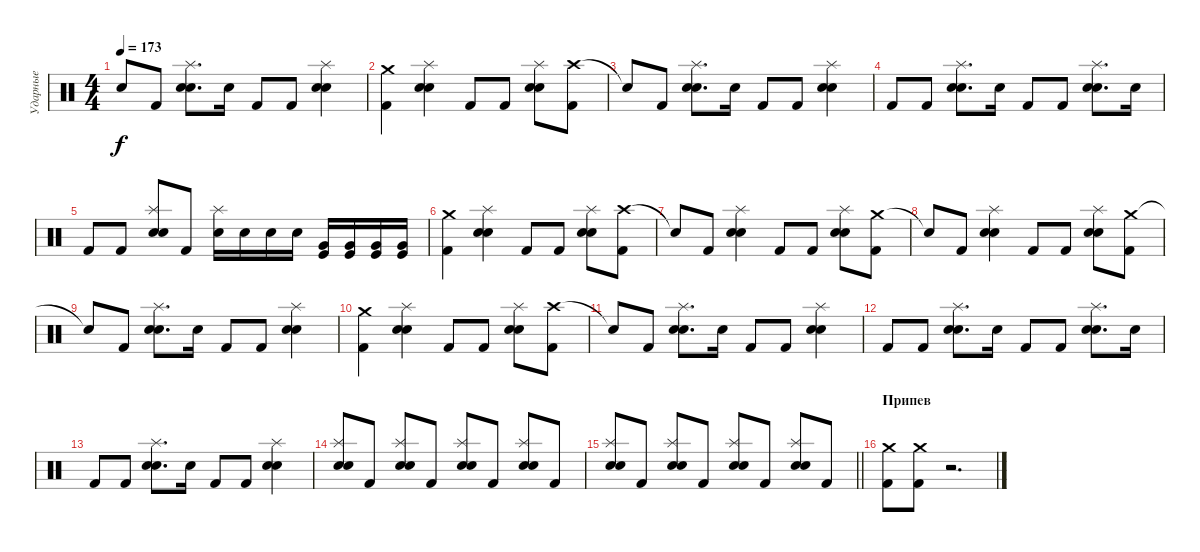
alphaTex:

\track ("Ударные" "Ударные") {instrument percussion}
\staff {score}
\articulation defaults
\ts (4 4)
\tempo 173
\clef neutral
\ks c "Snare (hit)"{t}.8{dy f} "Kick (hit) 2".8
("Splash (hit)" "Electric Snare (hit)" "Snare (hit) 2").8{d} "Electric Snare (hit)".16 "Kick (hit) 2".8 "Kick (hit) 2".8 ("Splash (hit)" "Electric Snare (hit)" "Snare (hit) 2").4 |
("Crash medium (hit)" "Kick (hit) 2").4 ("Splash (hit)" "Electric Snare (hit)" "Snare (hit) 2").4 "Kick (hit) 2".8 "Kick (hit) 2".8 ("Splash (hit)" "Electric Snare (hit)" "Snare (hit) 2").8 ("Crash high (hit)" "Kick (hit) 2").8 |
"Snare (hit)"{t}.8 "Kick (hit) 2".8 ("Splash (hit)" "Electric Snare (hit)" "Snare (hit) 2").8{d} "Electric Snare (hit)".16 "Kick (hit) 2".8 "Kick (hit) 2".8 ("Splash (hit)" "Electric Snare (hit)" "Snare (hit) 2").4 |
"Kick (hit) 2".8 "Kick (hit) 2".8 ("Splash (hit)" "Electric Snare (hit)" "Snare (hit) 2").8{d} "Electric Snare (hit)".16 "Kick (hit) 2".8 "Kick (hit) 2".8 ("Splash (hit)" "Electric Snare (hit)" "Snare (hit) 2").8{d} "Electric Snare (hit)".16 |
"Kick (hit) 2".8 "Kick (hit) 2".8 ("Splash (hit)" "Electric Snare (hit)" "Snare (hit) 2").8 "Kick (hit) 2".8 ("Splash (hit)" "Electric Snare (hit)").16 "Electric Snare (hit)".16 "Electric Snare (hit)".16 "Electric Snare (hit)".16 ("Very Low Tom (hit)" "Kick (hit)").16 ("Very Low Tom (hit)" "Kick (hit)").16 ("Very Low Tom (hit)" "Kick (hit)").16 ("Very Low Tom (hit)" "Kick (hit)").16 |
("Crash medium (hit)" "Kick (hit) 2").4 ("Splash (hit)" "Electric Snare (hit)" "Snare (hit) 2").4 "Kick (hit) 2".8 "Kick (hit) 2".8 ("Splash (hit)" "Electric Snare (hit)" "Snare (hit) 2").8 ("Crash high (hit)" "Kick (hit) 2").8 |
"Snare (hit)"{t}.8 "Kick (hit) 2".8 ("Splash (hit)" "Electric Snare (hit)" "Snare (hit) 2").4 "Kick (hit) 2".8 "Kick (hit) 2".8 ("Splash (hit)" "Electric Snare (hit)" "Snare (hit) 2").8 ("Crash medium (hit)" "Kick (hit) 2").8 |
"Snare (hit)"{t}.8 "Kick (hit) 2".8 ("Splash (hit)" "Electric Snare (hit)" "Snare (hit) 2").4 "Kick (hit) 2".8 "Kick (hit) 2".8 ("Splash (hit)" "Electric Snare (hit)" "Snare (hit) 2").8 ("Crash medium (hit)" "Kick (hit) 2").8 |
"Snare (hit)"{t}.8 "Kick (hit) 2".8 ("Splash (hit)" "Electric Snare (hit)" "Snare (hit) 2").8{d} "Electric Snare (hit)".16 "Kick (hit) 2".8 "Kick (hit) 2".8 ("Splash (hit)" "Electric Snare (hit)" "Snare (hit) 2").4 |
("Crash medium (hit)" "Kick (hit) 2").4 ("Splash (hit)" "Electric Snare (hit)" "Snare (hit) 2").4 "Kick (hit) 2".8 "Kick (hit) 2".8 ("Splash (hit)" "Electric Snare (hit)" "Snare (hit) 2").8 ("Crash high (hit)" "Kick (hit) 2").8 |
"Snare (hit)"{t}.8 "Kick (hit) 2".8 ("Splash (hit)" "Electric Snare (hit)" "Snare (hit) 2").8{d} "Electric Snare (hit)".16 "Kick (hit) 2".8 "Kick (hit) 2".8 ("Splash (hit)" "Electric Snare (hit)" "Snare (hit) 2").4 |
"Kick (hit) 2".8 "Kick (hit) 2".8 ("Splash (hit)" "Electric Snare (hit)" "Snare (hit) 2").8{d} "Electric Snare (hit)".16 "Kick (hit) 2".8 "Kick (hit) 2".8 ("Splash (hit)" "Electric Snare (hit)" "Snare (hit) 2").8{d} "Electric Snare (hit)".16 |
"Kick (hit) 2".8 "Kick (hit) 2".8 ("Splash (hit)" "Electric Snare (hit)" "Snare (hit) 2").8{d} "Electric Snare (hit)".16 "Kick (hit) 2".8 "Kick (hit) 2".8 ("Splash (hit)" "Electric Snare (hit)" "Snare (hit) 2").4 |
("Splash (hit)" "Electric Snare (hit)" "Snare (hit) 2").8 "Kick (hit) 2".8 ("Splash (hit)" "Electric Snare (hit)" "Snare (hit) 2").8 "Kick (hit) 2".8 ("Splash (hit)" "Electric Snare (hit)" "Snare (hit) 2").8 "Kick (hit) 2".8 ("Splash (hit)" "Electric Snare (hit)" "Snare (hit) 2").8 "Kick (hit) 2".8 |
\barLineRight lightlight
("Splash (hit)" "Electric Snare (hit)" "Snare (hit) 2").8 "Kick (hit) 2".8 ("Splash (hit)" "Electric Snare (hit)" "Snare (hit) 2").8 "Kick (hit) 2".8 ("Splash (hit)" "Electric Snare (hit)" "Snare (hit) 2").8 "Kick (hit) 2".8 ("Splash (hit)" "Electric Snare (hit)" "Snare (hit) 2").8 "Kick (hit) 2".8 |
\section ("" "Припев")
("Crash medium (hit)" "Kick (hit) 2").8 ("Crash medium (hit)" "Kick (hit) 2").8 r.2{d}
